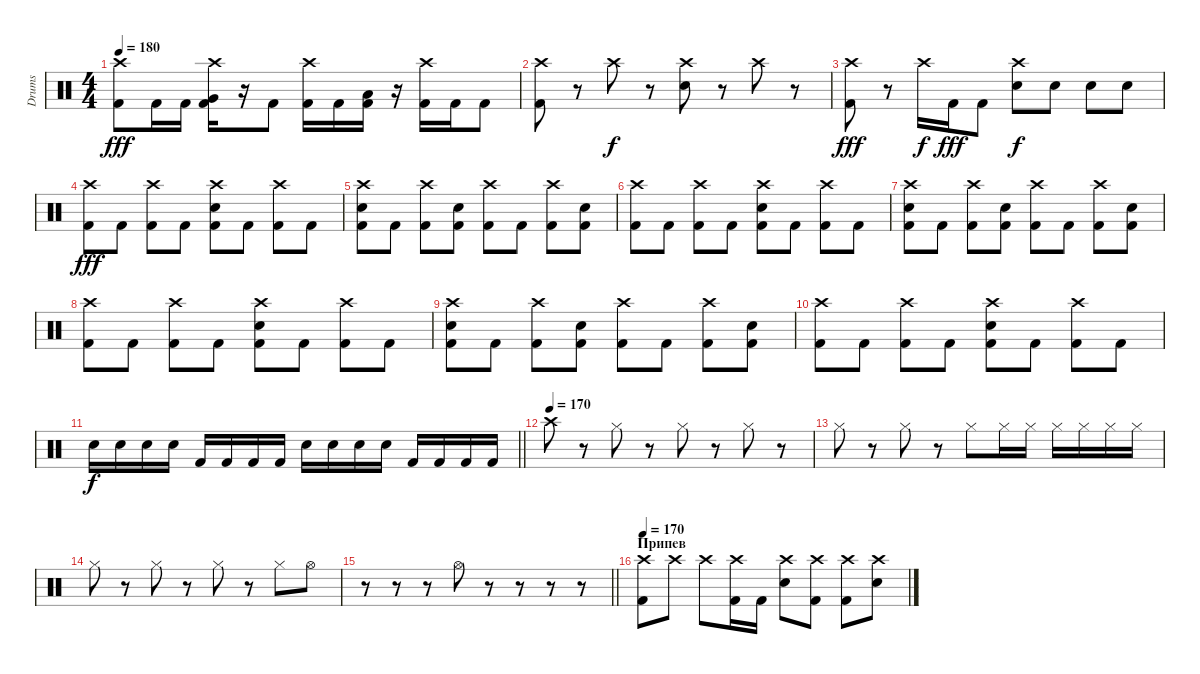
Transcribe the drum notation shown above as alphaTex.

\track ("Drums" "Drums") {instrument percussion}
\staff {score}
\articulation defaults
\ts (4 4)
\tempo 180
\clef neutral
\ks c
("Crash high (hit)" "Kick (hit) 2").8{dy fff} "Kick (hit) 2".16 "Kick (hit) 2".16 ("Crash high (hit)" "Very Low Tom (hit)" "Kick (hit) 2").16 r.16 "Kick (hit) 2".8 ("Crash high (hit)" "Kick (hit) 2").16 "Kick (hit) 2".16 ("Low Floor Tom (hit)" "Kick (hit) 2").16 r.16 ("Crash high (hit)" "Kick (hit) 2").16 "Kick (hit) 2".16 "Kick (hit) 2".8 |
("Crash high (hit)" "Kick (hit) 2").8 r.8 "Crash high (hit)".8{dy f} r.8 ("Crash high (hit)" "Electric Snare (hit)").8 r.8 "Crash high (hit)".8 r.8 |
("Crash high (hit)" "Kick (hit) 2").8{dy fff} r.8 "Crash high (hit)".16{dy f} "Kick (hit) 2".16{dy fff} "Kick (hit) 2".8 ("Crash high (hit)" "Electric Snare (hit)").8{dy f} "Electric Snare (hit)".8 "Electric Snare (hit)".8 "Electric Snare (hit)".8 |
("Crash high (hit)" "Kick (hit) 2").8{dy fff} "Kick (hit) 2".8 ("Crash high (hit)" "Kick (hit) 2").8 "Kick (hit) 2".8 ("Crash high (hit)" "Electric Snare (hit)" "Kick (hit) 2").8 "Kick (hit) 2".8 ("Crash high (hit)" "Kick (hit) 2").8 "Kick (hit) 2".8 |
("Crash high (hit)" "Electric Snare (hit)" "Kick (hit) 2").8 "Kick (hit) 2".8 ("Crash high (hit)" "Kick (hit) 2").8 ("Electric Snare (hit)" "Kick (hit) 2").8 ("Crash high (hit)" "Kick (hit) 2").8 "Kick (hit) 2".8 ("Crash high (hit)" "Kick (hit) 2").8 ("Electric Snare (hit)" "Kick (hit) 2").8 |
("Crash high (hit)" "Kick (hit) 2").8 "Kick (hit) 2".8 ("Crash high (hit)" "Kick (hit) 2").8 "Kick (hit) 2".8 ("Crash high (hit)" "Electric Snare (hit)" "Kick (hit) 2").8 "Kick (hit) 2".8 ("Crash high (hit)" "Kick (hit) 2").8 "Kick (hit) 2".8 |
("Crash high (hit)" "Electric Snare (hit)" "Kick (hit) 2").8 "Kick (hit) 2".8 ("Crash high (hit)" "Kick (hit) 2").8 ("Electric Snare (hit)" "Kick (hit) 2").8 ("Crash high (hit)" "Kick (hit) 2").8 "Kick (hit) 2".8 ("Crash high (hit)" "Kick (hit) 2").8 ("Electric Snare (hit)" "Kick (hit) 2").8 |
("Crash high (hit)" "Kick (hit) 2").8 "Kick (hit) 2".8 ("Crash high (hit)" "Kick (hit) 2").8 "Kick (hit) 2".8 ("Crash high (hit)" "Electric Snare (hit)" "Kick (hit) 2").8 "Kick (hit) 2".8 ("Crash high (hit)" "Kick (hit) 2").8 "Kick (hit) 2".8 |
("Crash high (hit)" "Electric Snare (hit)" "Kick (hit) 2").8 "Kick (hit) 2".8 ("Crash high (hit)" "Kick (hit) 2").8 ("Electric Snare (hit)" "Kick (hit) 2").8 ("Crash high (hit)" "Kick (hit) 2").8 "Kick (hit) 2".8 ("Crash high (hit)" "Kick (hit) 2").8 ("Electric Snare (hit)" "Kick (hit) 2").8 |
("Crash high (hit)" "Kick (hit) 2").8 "Kick (hit) 2".8 ("Crash high (hit)" "Kick (hit) 2").8 "Kick (hit) 2".8 ("Crash high (hit)" "Electric Snare (hit)" "Kick (hit) 2").8 "Kick (hit) 2".8 ("Crash high (hit)" "Kick (hit) 2").8 "Kick (hit) 2".8 |
\barLineRight lightlight "Electric Snare (hit)".16{dy f} "Electric Snare (hit)".16 "Electric Snare (hit)".16 "Electric Snare (hit)".16 "Kick (hit) 2".16 "Kick (hit) 2".16 "Kick (hit) 2".16 "Kick (hit) 2".16 "Electric Snare (hit)".16 "Electric Snare (hit)".16 "Electric Snare (hit)".16 "Electric Snare (hit)".16 "Kick (hit) 2".16 "Kick (hit) 2".16 "Kick (hit) 2".16 "Kick (hit) 2".16
|
\section ("" "")
\tempo (170)
"Crash high (hit)".8 r.8 "Hi-Hat (closed)".8 r.8 "Hi-Hat (closed)".8 r.8 "Hi-Hat (closed)".8 r.8 |
"Hi-Hat (closed)".8 r.8 "Hi-Hat (closed)".8 r.8 "Hi-Hat (closed)".8 "Hi-Hat (closed)".16 "Hi-Hat (closed)".16 "Hi-Hat (closed)".16 "Hi-Hat (closed)".16 "Hi-Hat (closed)".16 "Hi-Hat (closed)".16 |
"Hi-Hat (closed)".8 r.8 "Hi-Hat (closed)".8 r.8 "Hi-Hat (closed)".8 r.8 "Hi-Hat (closed)".8 "Hi-Hat (open)".8 |
\barLineRight lightlight
r.8 r.8 r.8 "Hi-Hat (open)".8 r.8 r.8 r.8 r.8 |
\section ("" "Припев")
\tempo 170
("Crash high (hit)" "Kick (hit) 2").8{volume 10} "Crash high (hit)".8 "Crash high (hit)".8 ("Crash high (hit)" "Kick (hit) 2").16 "Kick (hit) 2".16 ("Crash high (hit)" "Electric Snare (hit)").8 ("Crash high (hit)" "Kick (hit) 2").8 ("Crash high (hit)" "Kick (hit) 2").8 ("Crash high (hit)" "Electric Snare (hit)").8
